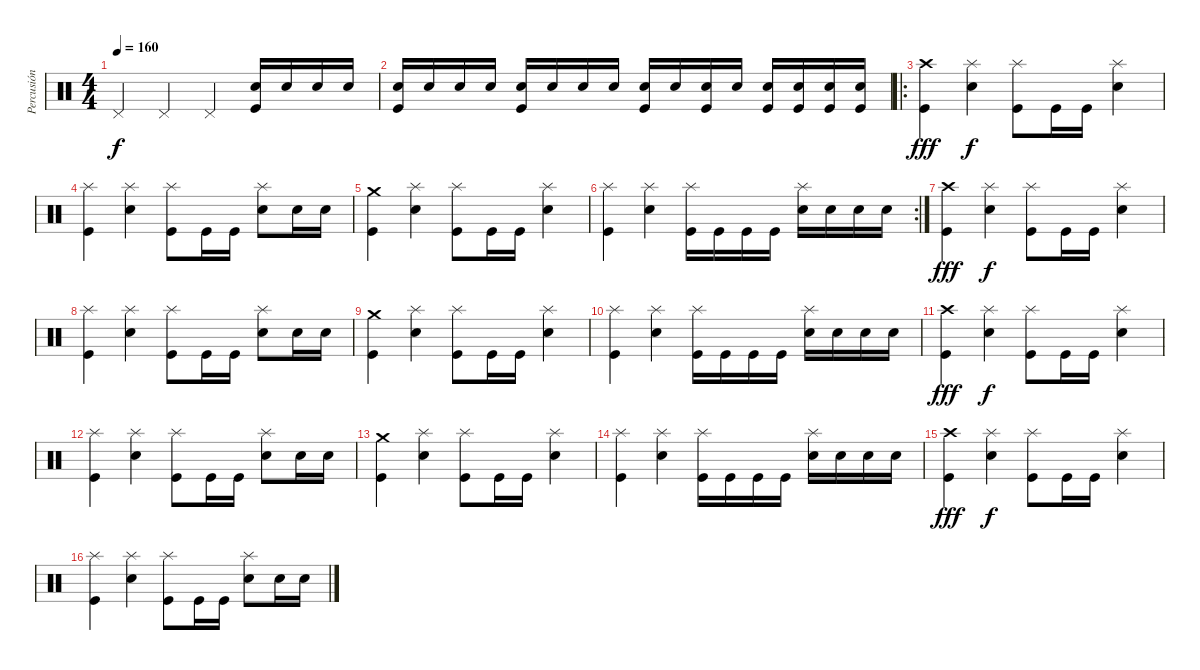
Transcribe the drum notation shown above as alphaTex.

\track ("Percusión" "Percusión") {instrument percussion}
\staff {score}
\articulation defaults
\ts (4 4)
\tempo 160
\clef neutral
\ks c "Pedal Hi-Hat (hit)".4{dy f} "Pedal Hi-Hat (hit)".4 "Pedal Hi-Hat (hit)".4
("Kick (hit)" "Electric Snare (hit)").16 "Electric Snare (hit)".16 "Electric Snare (hit)".16 "Electric Snare (hit)".16 |
("Kick (hit)" "Electric Snare (hit)").16 "Electric Snare (hit)".16 "Electric Snare (hit)".16 "Electric Snare (hit)".16 ("Kick (hit)" "Electric Snare (hit)").16 "Electric Snare (hit)".16 "Electric Snare (hit)".16 "Electric Snare (hit)".16 ("Kick (hit)" "Electric Snare (hit)").16 "Electric Snare (hit)".16 ("Kick (hit)" "Electric Snare (hit)").16 "Electric Snare (hit)".16 ("Kick (hit)" "Electric Snare (hit)").16 ("Kick (hit)" "Electric Snare (hit)").16 ("Kick (hit)" "Electric Snare (hit)").16 ("Kick (hit)" "Electric Snare (hit)").16 |
\ro
("Crash high (hit)" "Kick (hit)").4{dy fff} ("Splash (hit)" "Electric Snare (hit)").4{dy f} ("Splash (hit)" "Kick (hit)").8 "Kick (hit)".16 "Kick (hit)".16 ("Splash (hit)" "Electric Snare (hit)").4 |
("Splash (hit)" "Kick (hit)").4 ("Splash (hit)" "Electric Snare (hit)").4 ("Splash (hit)" "Kick (hit)").8 "Kick (hit)".16 "Kick (hit)".16 ("Splash (hit)" "Electric Snare (hit)").8 "Electric Snare (hit)".16 "Electric Snare (hit)".16 |
("Crash medium (hit)" "Kick (hit)").4 ("Splash (hit)" "Electric Snare (hit)").4 ("Splash (hit)" "Kick (hit)").8 "Kick (hit)".16 "Kick (hit)".16 ("Splash (hit)" "Electric Snare (hit)").4 |
\rc 2
("Splash (hit)" "Kick (hit)").4 ("Splash (hit)" "Electric Snare (hit)").4 ("Splash (hit)" "Kick (hit)").16 "Kick (hit)".16 "Kick (hit)".16 "Kick (hit)".16 ("Splash (hit)" "Electric Snare (hit)").16 "Electric Snare (hit)".16 "Electric Snare (hit)".16 "Electric Snare (hit)".16 |
("Crash high (hit)" "Kick (hit)").4{dy fff} ("Splash (hit)" "Electric Snare (hit)").4{dy f} ("Splash (hit)" "Kick (hit)").8 "Kick (hit)".16 "Kick (hit)".16 ("Splash (hit)" "Electric Snare (hit)").4 |
("Splash (hit)" "Kick (hit)").4 ("Splash (hit)" "Electric Snare (hit)").4 ("Splash (hit)" "Kick (hit)").8 "Kick (hit)".16 "Kick (hit)".16 ("Splash (hit)" "Electric Snare (hit)").8 "Electric Snare (hit)".16 "Electric Snare (hit)".16 |
("Crash medium (hit)" "Kick (hit)").4 ("Splash (hit)" "Electric Snare (hit)").4 ("Splash (hit)" "Kick (hit)").8 "Kick (hit)".16 "Kick (hit)".16 ("Splash (hit)" "Electric Snare (hit)").4 |
("Splash (hit)" "Kick (hit)").4 ("Splash (hit)" "Electric Snare (hit)").4 ("Splash (hit)" "Kick (hit)").16 "Kick (hit)".16 "Kick (hit)".16 "Kick (hit)".16 ("Splash (hit)" "Electric Snare (hit)").16 "Electric Snare (hit)".16 "Electric Snare (hit)".16 "Electric Snare (hit)".16 |
("Crash high (hit)" "Kick (hit)").4{dy fff} ("Splash (hit)" "Electric Snare (hit)").4{dy f} ("Splash (hit)" "Kick (hit)").8 "Kick (hit)".16 "Kick (hit)".16 ("Splash (hit)" "Electric Snare (hit)").4 |
("Splash (hit)" "Kick (hit)").4 ("Splash (hit)" "Electric Snare (hit)").4 ("Splash (hit)" "Kick (hit)").8 "Kick (hit)".16 "Kick (hit)".16 ("Splash (hit)" "Electric Snare (hit)").8 "Electric Snare (hit)".16 "Electric Snare (hit)".16 |
("Crash medium (hit)" "Kick (hit)").4 ("Splash (hit)" "Electric Snare (hit)").4 ("Splash (hit)" "Kick (hit)").8 "Kick (hit)".16 "Kick (hit)".16 ("Splash (hit)" "Electric Snare (hit)").4 |
("Splash (hit)" "Kick (hit)").4 ("Splash (hit)" "Electric Snare (hit)").4 ("Splash (hit)" "Kick (hit)").16 "Kick (hit)".16 "Kick (hit)".16 "Kick (hit)".16 ("Splash (hit)" "Electric Snare (hit)").16 "Electric Snare (hit)".16 "Electric Snare (hit)".16 "Electric Snare (hit)".16 |
("Crash high (hit)" "Kick (hit)").4{dy fff} ("Splash (hit)" "Electric Snare (hit)").4{dy f} ("Splash (hit)" "Kick (hit)").8 "Kick (hit)".16 "Kick (hit)".16 ("Splash (hit)" "Electric Snare (hit)").4 |
("Splash (hit)" "Kick (hit)").4 ("Splash (hit)" "Electric Snare (hit)").4 ("Splash (hit)" "Kick (hit)").8 "Kick (hit)".16 "Kick (hit)".16 ("Splash (hit)" "Electric Snare (hit)").8 "Electric Snare (hit)".16 "Electric Snare (hit)".16
